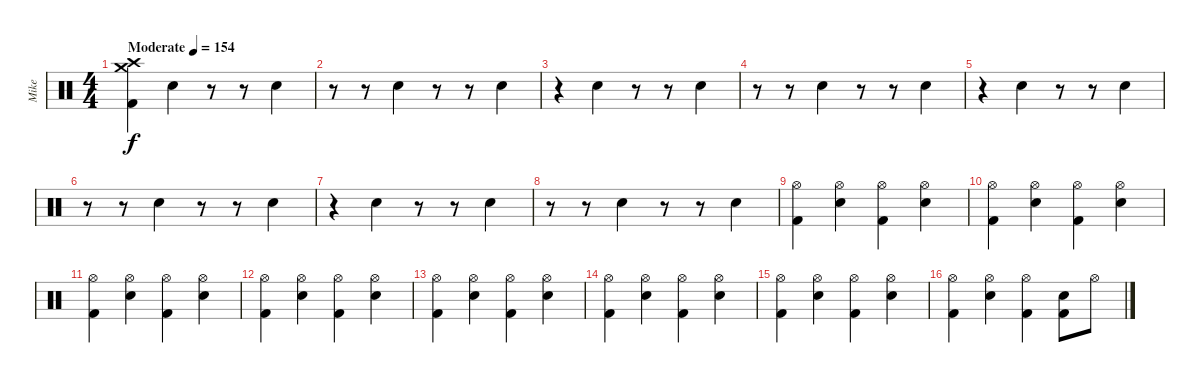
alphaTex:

\track ("Mike " "Mike ") {instrument percussion}
\staff {score}
\articulation defaults
\ts (4 4)
\tempo (154 "Moderate")
\clef neutral
\ks c
("Crash high (hit)" "Crash medium (hit)" "Kick (hit) 2").4{dy f} "Electric Snare (hit)".4 r.8 r.8 "Electric Snare (hit)".4 |
r.8 r.8 "Electric Snare (hit)".4 r.8 r.8 "Electric Snare (hit)".4 |
r.4 "Electric Snare (hit)".4 r.8 r.8 "Electric Snare (hit)".4 |
r.8 r.8 "Electric Snare (hit)".4 r.8 r.8 "Electric Snare (hit)".4 |
r.4 "Electric Snare (hit)".4 r.8 r.8 "Electric Snare (hit)".4 |
r.8 r.8 "Electric Snare (hit)".4 r.8 r.8 "Electric Snare (hit)".4 |
r.4 "Electric Snare (hit)".4 r.8 r.8 "Electric Snare (hit)".4 |
r.8 r.8 "Electric Snare (hit)".4 r.8 r.8 "Electric Snare (hit)".4 |
("Hi-Hat (open)" "Kick (hit) 2").4 ("Hi-Hat (open)" "Electric Snare (hit)").4 ("Hi-Hat (open)" "Kick (hit) 2").4 ("Hi-Hat (open)" "Electric Snare (hit)").4 |
("Hi-Hat (open)" "Kick (hit) 2").4 ("Hi-Hat (open)" "Electric Snare (hit)").4 ("Hi-Hat (open)" "Kick (hit) 2").4 ("Hi-Hat (open)" "Electric Snare (hit)").4 |
("Hi-Hat (open)" "Kick (hit) 2").4 ("Hi-Hat (open)" "Electric Snare (hit)").4 ("Hi-Hat (open)" "Kick (hit) 2").4 ("Hi-Hat (open)" "Electric Snare (hit)").4 |
("Hi-Hat (open)" "Kick (hit) 2").4 ("Hi-Hat (open)" "Electric Snare (hit)").4 ("Hi-Hat (open)" "Kick (hit) 2").4 ("Hi-Hat (open)" "Electric Snare (hit)").4 |
("Hi-Hat (open)" "Kick (hit) 2").4 ("Hi-Hat (open)" "Electric Snare (hit)").4 ("Hi-Hat (open)" "Kick (hit) 2").4 ("Hi-Hat (open)" "Electric Snare (hit)").4 |
("Hi-Hat (open)" "Kick (hit) 2").4 ("Hi-Hat (open)" "Electric Snare (hit)").4 ("Hi-Hat (open)" "Kick (hit) 2").4 ("Hi-Hat (open)" "Electric Snare (hit)").4 |
("Hi-Hat (open)" "Kick (hit) 2").4 ("Hi-Hat (open)" "Electric Snare (hit)").4 ("Hi-Hat (open)" "Kick (hit) 2").4 ("Hi-Hat (open)" "Electric Snare (hit)").4 |
("Hi-Hat (open)" "Kick (hit) 2").4 ("Hi-Hat (open)" "Electric Snare (hit)").4 ("Hi-Hat (open)" "Kick (hit) 2").4 ("Electric Snare (hit)" "Kick (hit) 2").8 "Hi-Hat (open)".8
